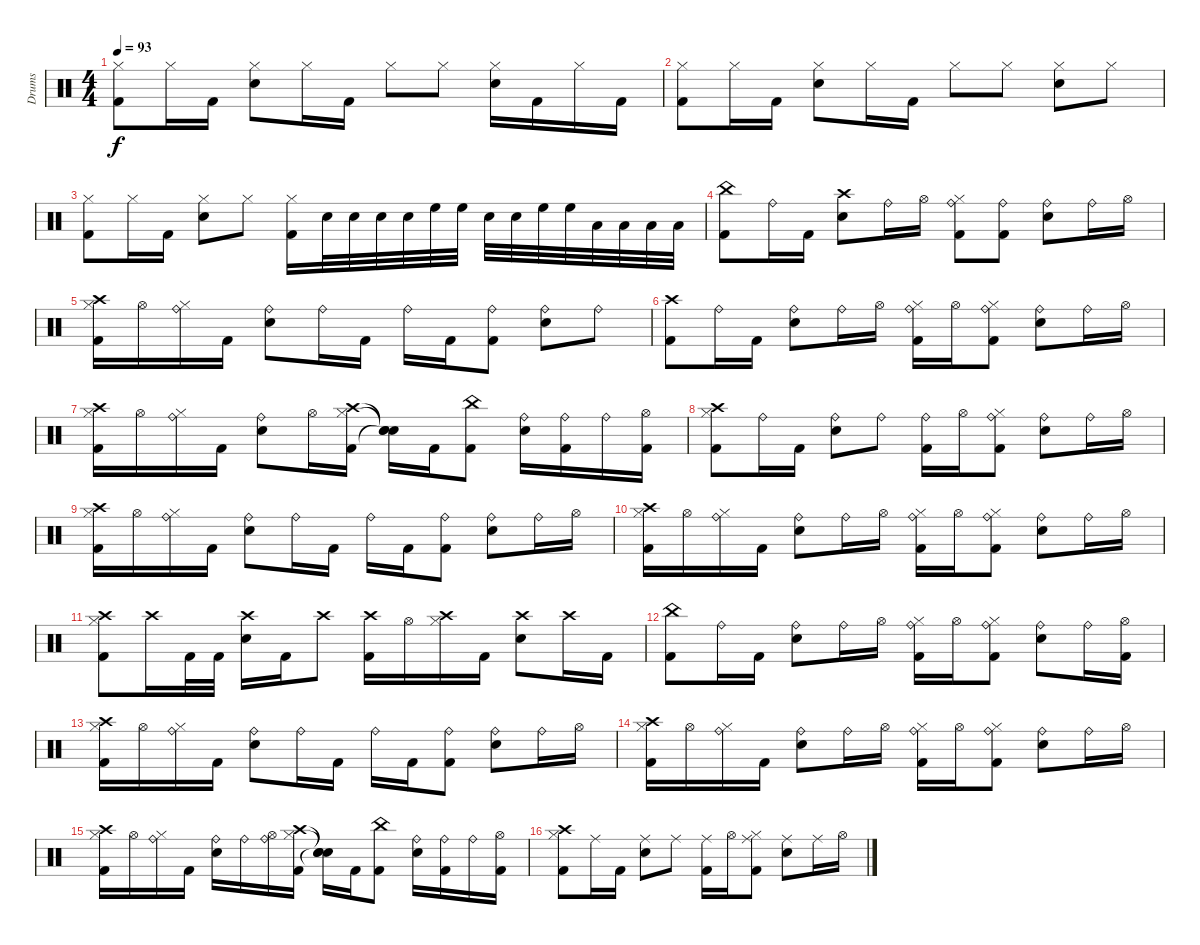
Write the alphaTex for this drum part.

\track ("Drums" "Drums") {instrument percussion}
\staff {score}
\articulation defaults
\ts (4 4)
\tempo 93
\clef neutral
\ks c
("Hi-Hat (closed)" "Kick (hit) 2").8{dy f} "Hi-Hat (closed)".16 "Kick (hit) 2".16 ("Hi-Hat (closed)" "Electric Snare (hit)").8 "Hi-Hat (closed)".16 "Kick (hit) 2".16 "Hi-Hat (closed)".8 "Hi-Hat (closed)".8 ("Hi-Hat (closed)" "Electric Snare (hit)").16 "Kick (hit) 2".16 "Hi-Hat (closed)".16 "Kick (hit) 2".16 |
("Hi-Hat (closed)" "Kick (hit) 2").8 "Hi-Hat (closed)".16 "Kick (hit) 2".16 ("Hi-Hat (closed)" "Electric Snare (hit)").8 "Hi-Hat (closed)".16 "Kick (hit) 2".16 "Hi-Hat (closed)".8 "Hi-Hat (closed)".8 ("Hi-Hat (closed)" "Electric Snare (hit)").8 "Hi-Hat (closed)".8 |
("Hi-Hat (closed)" "Kick (hit) 2").8 "Hi-Hat (closed)".16 "Kick (hit) 2".16 ("Hi-Hat (closed)" "Electric Snare (hit)").8 "Hi-Hat (closed)".8 ("Hi-Hat (closed)" "Kick (hit) 2").16 "Electric Snare (hit)".32 "Electric Snare (hit)".32 "Electric Snare (hit)".32 "Electric Snare (hit)".32 "High Floor Tom (hit)".32 "High Floor Tom (hit)".32 "Electric Snare (hit)".32 "Electric Snare (hit)".32 "High Floor Tom (hit)".32 "High Floor Tom (hit)".32 "Low Tom (hit)".32 "Low Tom (hit)".32 "Low Floor Tom (hit)".32 "Low Floor Tom (hit)".32 |
("China (hit)" "Kick (hit) 2").8 "Ride (bell)".16 "Kick (hit) 2".16 ("Crash high (hit)" "Electric Snare (hit)").8 "Ride (bell)".16 "Hi-Hat (open)".16 ("Ride (bell)" "Hi-Hat (closed)" "Kick (hit) 2").8 ("Ride (bell)" "Kick (hit) 2").8 ("Ride (bell)" "Electric Snare (hit)").8 "Ride (bell)".16 "Hi-Hat (open)".16 |
("Crash high (hit)" "Hi-Hat (closed)" "Kick (hit) 2").16 "Hi-Hat (open)".16 ("Ride (bell)" "Hi-Hat (closed)").16 "Kick (hit) 2".16 ("Ride (bell)" "Electric Snare (hit)").8 "Ride (bell)".16 "Kick (hit) 2".16 "Ride (bell)".16 "Kick (hit) 2".16 ("Ride (bell)" "Kick (hit) 2").8 ("Ride (bell)" "Electric Snare (hit)").8 "Ride (bell)".8 |
("Crash high (hit)" "Kick (hit) 2").8 "Ride (bell)".16 "Kick (hit) 2".16 ("Ride (bell)" "Electric Snare (hit)").8 "Ride (bell)".16 "Hi-Hat (open)".16 ("Ride (bell)" "Hi-Hat (closed)" "Kick (hit) 2").16 "Hi-Hat (open)".16 ("Ride (bell)" "Hi-Hat (closed)" "Kick (hit) 2").8 ("Ride (bell)" "Electric Snare (hit)").8 "Ride (bell)".16 "Hi-Hat (open)".16 |
("Crash high (hit)" "Hi-Hat (closed)" "Kick (hit) 2").16 "Hi-Hat (open)".16 ("Ride (bell)" "Hi-Hat (closed)").16 "Kick (hit) 2".16 ("Ride (bell)" "Electric Snare (hit)").8 "Hi-Hat (open)".16 ("Crash high (hit)" "Hi-Hat (closed)" "Kick (hit) 2").16 ("Snare (hit)"{t} "Snare (hit)"{t} "Snare (hit)"{t}).16 "Kick (hit) 2".16 ("China (hit)" "Kick (hit) 2").8 ("Ride (bell)" "Electric Snare (hit)").16 ("Ride (bell)" "Kick (hit) 2").16 "Ride (bell)".16 ("Hi-Hat (open)" "Kick (hit) 2").16 |
("Crash high (hit)" "Hi-Hat (closed)" "Kick (hit) 2").8 "Ride (bell)".16 "Kick (hit) 2".16 ("Ride (bell)" "Electric Snare (hit)").8 "Ride (bell)".8 ("Ride (bell)" "Kick (hit) 2").16 "Hi-Hat (open)".16 ("Ride (bell)" "Hi-Hat (closed)" "Kick (hit) 2").8 ("Ride (bell)" "Electric Snare (hit)").8 "Ride (bell)".16 "Hi-Hat (open)".16 |
("Crash high (hit)" "Hi-Hat (closed)" "Kick (hit) 2").16 "Hi-Hat (open)".16 ("Ride (bell)" "Hi-Hat (closed)").16 "Kick (hit) 2".16 ("Ride (bell)" "Electric Snare (hit)").8 "Ride (bell)".16 "Kick (hit) 2".16 "Ride (bell)".16 "Kick (hit) 2".16 ("Ride (bell)" "Kick (hit) 2").8 ("Ride (bell)" "Electric Snare (hit)").8 "Ride (bell)".16 "Hi-Hat (open)".16 |
("Crash high (hit)" "Hi-Hat (closed)" "Kick (hit) 2").16 "Hi-Hat (open)".16 ("Ride (bell)" "Hi-Hat (closed)").16 "Kick (hit) 2".16 ("Ride (bell)" "Electric Snare (hit)").8 "Ride (bell)".16 "Hi-Hat (open)".16 ("Ride (bell)" "Hi-Hat (closed)" "Kick (hit) 2").16 "Hi-Hat (open)".16 ("Ride (bell)" "Hi-Hat (closed)" "Kick (hit) 2").8 ("Ride (bell)" "Electric Snare (hit)").8 "Ride (bell)".16 "Hi-Hat (open)".16 |
("Crash high (hit)" "Hi-Hat (closed)" "Kick (hit) 2").8 "Crash high (hit)".16 "Kick (hit) 2".32 "Kick (hit) 2".32 ("Crash high (hit)" "Electric Snare (hit)").16 "Kick (hit) 2".16 "Crash high (hit)".8 ("Crash high (hit)" "Kick (hit) 2").16 "Hi-Hat (open)".16 ("Crash high (hit)" "Hi-Hat (closed)").16 "Kick (hit) 2".16 ("Crash high (hit)" "Electric Snare (hit)").8 "Crash high (hit)".16 "Kick (hit) 2".16 |
("China (hit)" "Kick (hit) 2").8 "Ride (bell)".16 "Kick (hit) 2".16 ("Ride (bell)" "Electric Snare (hit)").8 "Ride (bell)".16 "Hi-Hat (open)".16 ("Ride (bell)" "Hi-Hat (closed)" "Kick (hit) 2").16 "Hi-Hat (open)".16 ("Ride (bell)" "Hi-Hat (closed)" "Kick (hit) 2").8 ("Ride (bell)" "Electric Snare (hit)").8 "Ride (bell)".16 ("Hi-Hat (open)" "Kick (hit) 2").16 |
("Crash high (hit)" "Hi-Hat (closed)" "Kick (hit) 2").16 "Hi-Hat (open)".16 ("Ride (bell)" "Hi-Hat (closed)").16 "Kick (hit) 2".16 ("Ride (bell)" "Electric Snare (hit)").8 "Ride (bell)".16 "Kick (hit) 2".16 "Ride (bell)".16 "Kick (hit) 2".16 ("Ride (bell)" "Kick (hit) 2").8 ("Ride (bell)" "Electric Snare (hit)").8 "Ride (bell)".16 "Hi-Hat (open)".16 |
("Crash high (hit)" "Hi-Hat (closed)" "Kick (hit) 2").16 "Hi-Hat (open)".16 ("Ride (bell)" "Hi-Hat (closed)").16 "Kick (hit) 2".16 ("Ride (bell)" "Electric Snare (hit)").8 "Ride (bell)".16 "Hi-Hat (open)".16 ("Ride (bell)" "Hi-Hat (closed)" "Kick (hit) 2").16 "Hi-Hat (open)".16 ("Ride (bell)" "Hi-Hat (closed)" "Kick (hit) 2").8 ("Ride (bell)" "Electric Snare (hit)").8 "Ride (bell)".16 "Hi-Hat (open)".16 |
("Crash high (hit)" "Hi-Hat (closed)" "Kick (hit) 2").16 "Hi-Hat (open)".16 ("Ride (bell)" "Hi-Hat (closed)").16 "Kick (hit) 2".16 ("Ride (bell)" "Electric Snare (hit)").16 "Ride (bell)".16 ("Ride (bell)" "Hi-Hat (open)").16 ("Crash high (hit)" "Hi-Hat (closed)" "Kick (hit) 2").16 ("Snare (hit)"{t} "Snare (hit)"{t} "Snare (hit)"{t}).16 "Kick (hit) 2".16 ("China (hit)" "Kick (hit) 2").8 ("Ride (bell)" "Electric Snare (hit)").16 ("Ride (bell)" "Kick (hit) 2").16 "Ride (bell)".16 ("Hi-Hat (open)" "Kick (hit) 2").16 |
("Crash high (hit)" "Hi-Hat (closed)" "Kick (hit) 2").8 "Ride (middle)".16 "Kick (hit) 2".16 ("Ride (middle)" "Electric Snare (hit)").8 "Ride (middle)".8 ("Ride (middle)" "Kick (hit) 2").16 "Hi-Hat (open)".16 ("Ride (middle)" "Hi-Hat (closed)" "Kick (hit) 2").8 ("Ride (middle)" "Electric Snare (hit)").8 "Ride (middle)".16 "Hi-Hat (open)".16
